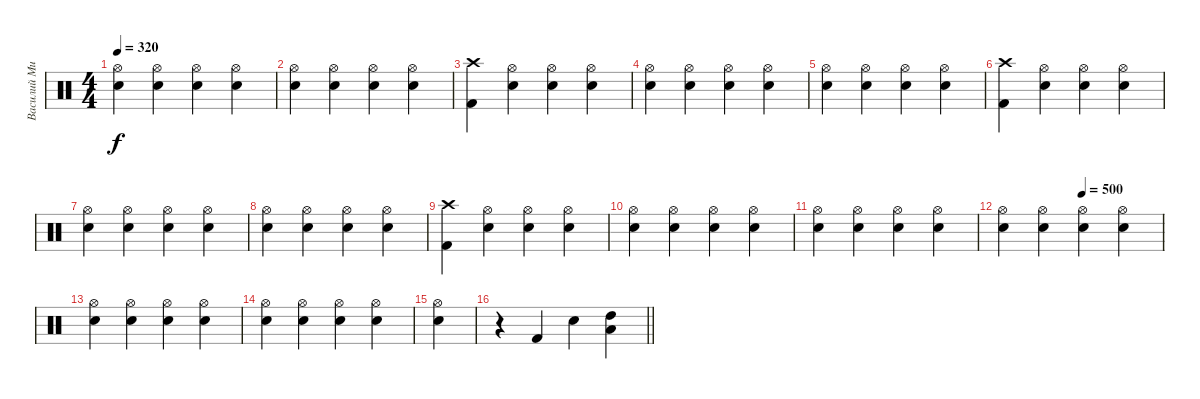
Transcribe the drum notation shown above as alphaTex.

\track ("Василий Михалыч-ударные" "Василий Ми") {instrument percussion}
\staff {score}
\articulation defaults
\ts (4 4)
\tempo 320
\clef neutral
\ks c
("Electric Snare (hit)" "Hi-Hat (open)").4{dy f} ("Electric Snare (hit)" "Hi-Hat (open)").4 ("Electric Snare (hit)" "Hi-Hat (open)").4 ("Electric Snare (hit)" "Hi-Hat (open)").4 |
("Electric Snare (hit)" "Hi-Hat (open)").4 ("Electric Snare (hit)" "Hi-Hat (open)").4 ("Electric Snare (hit)" "Hi-Hat (open)").4 ("Electric Snare (hit)" "Hi-Hat (open)").4 |
("Kick (hit) 2" "Crash high (hit)").4 ("Electric Snare (hit)" "Hi-Hat (open)").4 ("Electric Snare (hit)" "Hi-Hat (open)").4 ("Electric Snare (hit)" "Hi-Hat (open)").4 |
("Electric Snare (hit)" "Hi-Hat (open)").4 ("Electric Snare (hit)" "Hi-Hat (open)").4 ("Electric Snare (hit)" "Hi-Hat (open)").4 ("Electric Snare (hit)" "Hi-Hat (open)").4 |
("Electric Snare (hit)" "Hi-Hat (open)").4 ("Electric Snare (hit)" "Hi-Hat (open)").4 ("Electric Snare (hit)" "Hi-Hat (open)").4 ("Electric Snare (hit)" "Hi-Hat (open)").4 |
("Kick (hit) 2" "Crash high (hit)").4 ("Electric Snare (hit)" "Hi-Hat (open)").4 ("Electric Snare (hit)" "Hi-Hat (open)").4 ("Electric Snare (hit)" "Hi-Hat (open)").4 |
("Electric Snare (hit)" "Hi-Hat (open)").4 ("Electric Snare (hit)" "Hi-Hat (open)").4 ("Electric Snare (hit)" "Hi-Hat (open)").4 ("Electric Snare (hit)" "Hi-Hat (open)").4 |
("Electric Snare (hit)" "Hi-Hat (open)").4 ("Electric Snare (hit)" "Hi-Hat (open)").4 ("Electric Snare (hit)" "Hi-Hat (open)").4 ("Electric Snare (hit)" "Hi-Hat (open)").4 |
("Kick (hit) 2" "Crash high (hit)").4 ("Electric Snare (hit)" "Hi-Hat (open)").4 ("Electric Snare (hit)" "Hi-Hat (open)").4 ("Electric Snare (hit)" "Hi-Hat (open)").4 |
("Electric Snare (hit)" "Hi-Hat (open)").4 ("Electric Snare (hit)" "Hi-Hat (open)").4 ("Electric Snare (hit)" "Hi-Hat (open)").4 ("Electric Snare (hit)" "Hi-Hat (open)").4 |
("Electric Snare (hit)" "Hi-Hat (open)").4 ("Electric Snare (hit)" "Hi-Hat (open)").4 ("Electric Snare (hit)" "Hi-Hat (open)").4 ("Electric Snare (hit)" "Hi-Hat (open)").4 |
\tempo (500 0.5)
("Electric Snare (hit)" "Hi-Hat (open)").4 ("Electric Snare (hit)" "Hi-Hat (open)").4 ("Electric Snare (hit)" "Hi-Hat (open)").4 ("Electric Snare (hit)" "Hi-Hat (open)").4 |
("Electric Snare (hit)" "Hi-Hat (open)").4 ("Electric Snare (hit)" "Hi-Hat (open)").4 ("Electric Snare (hit)" "Hi-Hat (open)").4 ("Electric Snare (hit)" "Hi-Hat (open)").4 |
("Electric Snare (hit)" "Hi-Hat (open)").4 ("Electric Snare (hit)" "Hi-Hat (open)").4 ("Electric Snare (hit)" "Hi-Hat (open)").4 ("Electric Snare (hit)" "Hi-Hat (open)").4 |
("Electric Snare (hit)" "Hi-Hat (open)").4 |
\barLineRight lightlight
r.4 "Kick (hit) 2".4 "Electric Snare (hit)".4 ("Low Tom (hit)" "High Tom (hit)").4
